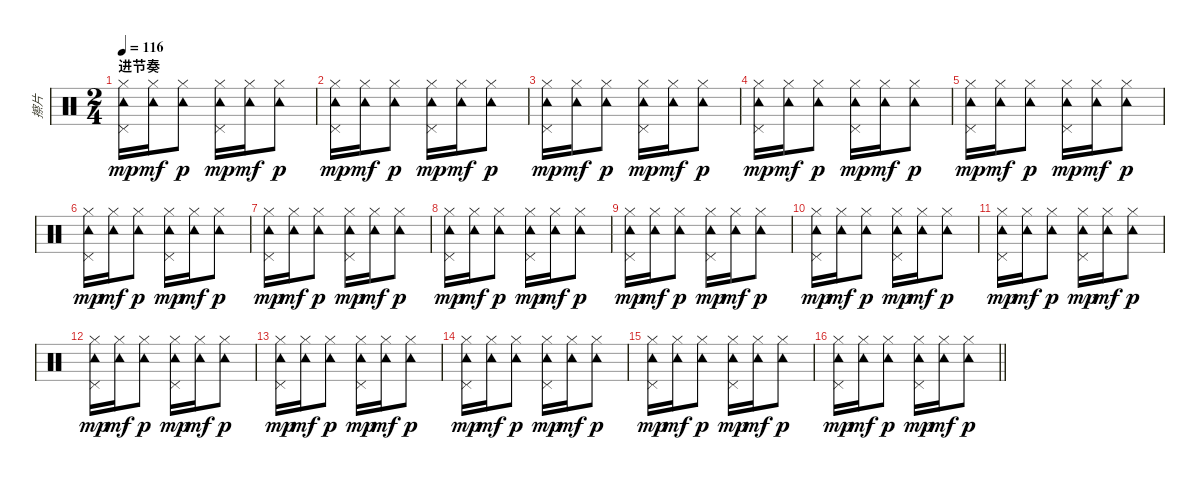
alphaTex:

\track ("擦片" "擦片") {instrument percussion}
\staff {score}
\articulation defaults
\ts (2 4)
\section ("" "进节奏")
\tempo 116
\clef neutral
\ks c
("Hi-Hat (closed)" "Tambourine (hit)" "Pedal Hi-Hat (hit)").16{dy mp} ("Hi-Hat (closed)" "Tambourine (hit)").16{dy mf} ("Hi-Hat (closed)" "Tambourine (hit)").8{dy p} ("Hi-Hat (closed)" "Tambourine (hit)" "Pedal Hi-Hat (hit)").16{dy mp} ("Hi-Hat (closed)" "Tambourine (hit)").16{dy mf} ("Hi-Hat (closed)" "Tambourine (hit)").8{dy p} |
("Hi-Hat (closed)" "Tambourine (hit)" "Pedal Hi-Hat (hit)").16{dy mp} ("Hi-Hat (closed)" "Tambourine (hit)").16{dy mf} ("Hi-Hat (closed)" "Tambourine (hit)").8{dy p} ("Hi-Hat (closed)" "Tambourine (hit)" "Pedal Hi-Hat (hit)").16{dy mp} ("Hi-Hat (closed)" "Tambourine (hit)").16{dy mf} ("Hi-Hat (closed)" "Tambourine (hit)").8{dy p} |
("Hi-Hat (closed)" "Tambourine (hit)" "Pedal Hi-Hat (hit)").16{dy mp} ("Hi-Hat (closed)" "Tambourine (hit)").16{dy mf} ("Hi-Hat (closed)" "Tambourine (hit)").8{dy p} ("Hi-Hat (closed)" "Tambourine (hit)" "Pedal Hi-Hat (hit)").16{dy mp} ("Hi-Hat (closed)" "Tambourine (hit)").16{dy mf} ("Hi-Hat (closed)" "Tambourine (hit)").8{dy p} |
("Hi-Hat (closed)" "Tambourine (hit)" "Pedal Hi-Hat (hit)").16{dy mp} ("Hi-Hat (closed)" "Tambourine (hit)").16{dy mf} ("Hi-Hat (closed)" "Tambourine (hit)").8{dy p} ("Hi-Hat (closed)" "Tambourine (hit)" "Pedal Hi-Hat (hit)").16{dy mp} ("Hi-Hat (closed)" "Tambourine (hit)").16{dy mf} ("Hi-Hat (closed)" "Tambourine (hit)").8{dy p} |
("Hi-Hat (closed)" "Tambourine (hit)" "Pedal Hi-Hat (hit)").16{dy mp} ("Hi-Hat (closed)" "Tambourine (hit)").16{dy mf} ("Hi-Hat (closed)" "Tambourine (hit)").8{dy p} ("Hi-Hat (closed)" "Tambourine (hit)" "Pedal Hi-Hat (hit)").16{dy mp} ("Hi-Hat (closed)" "Tambourine (hit)").16{dy mf} ("Hi-Hat (closed)" "Tambourine (hit)").8{dy p} |
("Hi-Hat (closed)" "Tambourine (hit)" "Pedal Hi-Hat (hit)").16{dy mp} ("Hi-Hat (closed)" "Tambourine (hit)").16{dy mf} ("Hi-Hat (closed)" "Tambourine (hit)").8{dy p} ("Hi-Hat (closed)" "Tambourine (hit)" "Pedal Hi-Hat (hit)").16{dy mp} ("Hi-Hat (closed)" "Tambourine (hit)").16{dy mf} ("Hi-Hat (closed)" "Tambourine (hit)").8{dy p} |
("Hi-Hat (closed)" "Tambourine (hit)" "Pedal Hi-Hat (hit)").16{dy mp} ("Hi-Hat (closed)" "Tambourine (hit)").16{dy mf} ("Hi-Hat (closed)" "Tambourine (hit)").8{dy p} ("Hi-Hat (closed)" "Tambourine (hit)" "Pedal Hi-Hat (hit)").16{dy mp} ("Hi-Hat (closed)" "Tambourine (hit)").16{dy mf} ("Hi-Hat (closed)" "Tambourine (hit)").8{dy p} |
("Hi-Hat (closed)" "Tambourine (hit)" "Pedal Hi-Hat (hit)").16{dy mp} ("Hi-Hat (closed)" "Tambourine (hit)").16{dy mf} ("Hi-Hat (closed)" "Tambourine (hit)").8{dy p} ("Hi-Hat (closed)" "Tambourine (hit)" "Pedal Hi-Hat (hit)").16{dy mp} ("Hi-Hat (closed)" "Tambourine (hit)").16{dy mf} ("Hi-Hat (closed)" "Tambourine (hit)").8{dy p} |
("Hi-Hat (closed)" "Tambourine (hit)" "Pedal Hi-Hat (hit)").16{dy mp} ("Hi-Hat (closed)" "Tambourine (hit)").16{dy mf} ("Hi-Hat (closed)" "Tambourine (hit)").8{dy p} ("Hi-Hat (closed)" "Tambourine (hit)" "Pedal Hi-Hat (hit)").16{dy mp} ("Hi-Hat (closed)" "Tambourine (hit)").16{dy mf} ("Hi-Hat (closed)" "Tambourine (hit)").8{dy p} |
("Hi-Hat (closed)" "Tambourine (hit)" "Pedal Hi-Hat (hit)").16{dy mp} ("Hi-Hat (closed)" "Tambourine (hit)").16{dy mf} ("Hi-Hat (closed)" "Tambourine (hit)").8{dy p} ("Hi-Hat (closed)" "Tambourine (hit)" "Pedal Hi-Hat (hit)").16{dy mp} ("Hi-Hat (closed)" "Tambourine (hit)").16{dy mf} ("Hi-Hat (closed)" "Tambourine (hit)").8{dy p} |
("Hi-Hat (closed)" "Tambourine (hit)" "Pedal Hi-Hat (hit)").16{dy mp} ("Hi-Hat (closed)" "Tambourine (hit)").16{dy mf} ("Hi-Hat (closed)" "Tambourine (hit)").8{dy p} ("Hi-Hat (closed)" "Tambourine (hit)" "Pedal Hi-Hat (hit)").16{dy mp} ("Hi-Hat (closed)" "Tambourine (hit)").16{dy mf} ("Hi-Hat (closed)" "Tambourine (hit)").8{dy p} |
("Hi-Hat (closed)" "Tambourine (hit)" "Pedal Hi-Hat (hit)").16{dy mp} ("Hi-Hat (closed)" "Tambourine (hit)").16{dy mf} ("Hi-Hat (closed)" "Tambourine (hit)").8{dy p} ("Hi-Hat (closed)" "Tambourine (hit)" "Pedal Hi-Hat (hit)").16{dy mp} ("Hi-Hat (closed)" "Tambourine (hit)").16{dy mf} ("Hi-Hat (closed)" "Tambourine (hit)").8{dy p} |
("Hi-Hat (closed)" "Tambourine (hit)" "Pedal Hi-Hat (hit)").16{dy mp} ("Hi-Hat (closed)" "Tambourine (hit)").16{dy mf} ("Hi-Hat (closed)" "Tambourine (hit)").8{dy p} ("Hi-Hat (closed)" "Tambourine (hit)" "Pedal Hi-Hat (hit)").16{dy mp} ("Hi-Hat (closed)" "Tambourine (hit)").16{dy mf} ("Hi-Hat (closed)" "Tambourine (hit)").8{dy p} |
("Hi-Hat (closed)" "Tambourine (hit)" "Pedal Hi-Hat (hit)").16{dy mp} ("Hi-Hat (closed)" "Tambourine (hit)").16{dy mf} ("Hi-Hat (closed)" "Tambourine (hit)").8{dy p} ("Hi-Hat (closed)" "Tambourine (hit)" "Pedal Hi-Hat (hit)").16{dy mp} ("Hi-Hat (closed)" "Tambourine (hit)").16{dy mf} ("Hi-Hat (closed)" "Tambourine (hit)").8{dy p} |
("Hi-Hat (closed)" "Tambourine (hit)" "Pedal Hi-Hat (hit)").16{dy mp} ("Hi-Hat (closed)" "Tambourine (hit)").16{dy mf} ("Hi-Hat (closed)" "Tambourine (hit)").8{dy p} ("Hi-Hat (closed)" "Tambourine (hit)" "Pedal Hi-Hat (hit)").16{dy mp} ("Hi-Hat (closed)" "Tambourine (hit)").16{dy mf} ("Hi-Hat (closed)" "Tambourine (hit)").8{dy p} |
\barLineRight lightlight
("Hi-Hat (closed)" "Tambourine (hit)" "Pedal Hi-Hat (hit)").16{dy mp} ("Hi-Hat (closed)" "Tambourine (hit)").16{dy mf} ("Hi-Hat (closed)" "Tambourine (hit)").8{dy p} ("Hi-Hat (closed)" "Tambourine (hit)" "Pedal Hi-Hat (hit)").16{dy mp} ("Hi-Hat (closed)" "Tambourine (hit)").16{dy mf} ("Hi-Hat (closed)" "Tambourine (hit)").8{dy p}
